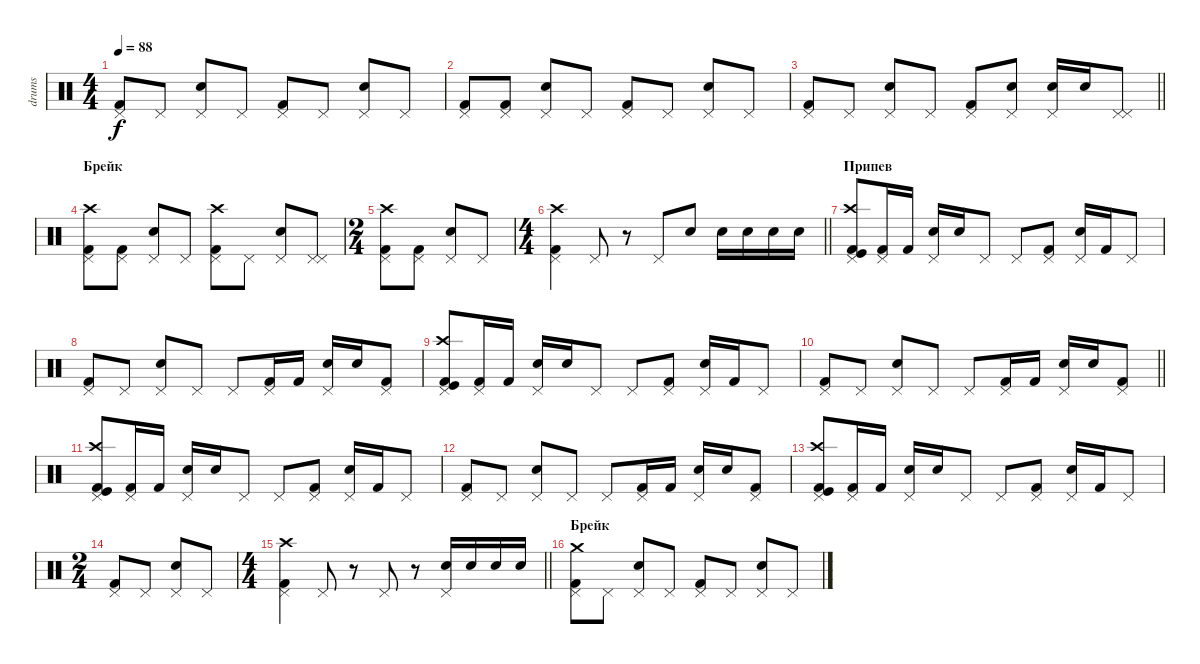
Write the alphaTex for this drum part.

\track ("drums" "drums") {instrument percussion}
\staff {score}
\articulation defaults
\ts (4 4)
\tempo 88
\clef neutral
\ks c
("Pedal Hi-Hat (hit)" "Kick (hit) 2").8{dy f} "Pedal Hi-Hat (hit)".8 ("Snare (hit) 2" "Pedal Hi-Hat (hit)").8 "Pedal Hi-Hat (hit)".8 ("Pedal Hi-Hat (hit)" "Kick (hit) 2").8 "Pedal Hi-Hat (hit)".8 ("Pedal Hi-Hat (hit)" "Snare (hit) 2").8 "Pedal Hi-Hat (hit)".8 |
("Pedal Hi-Hat (hit)" "Kick (hit) 2").8 ("Kick (hit) 2" "Pedal Hi-Hat (hit)").8 ("Pedal Hi-Hat (hit)" "Snare (hit) 2").8 "Pedal Hi-Hat (hit)".8 ("Kick (hit) 2" "Pedal Hi-Hat (hit)").8 "Pedal Hi-Hat (hit)".8 ("Pedal Hi-Hat (hit)" "Snare (hit) 2").8 "Pedal Hi-Hat (hit)".8 |
\barLineRight lightlight
("Pedal Hi-Hat (hit)" "Kick (hit) 2").8 "Pedal Hi-Hat (hit)".8 ("Pedal Hi-Hat (hit)" "Snare (hit) 2").8 "Pedal Hi-Hat (hit)".8 ("Pedal Hi-Hat (hit)" "Kick (hit) 2").8 ("Pedal Hi-Hat (hit)" "Snare (hit) 2").8 ("Pedal Hi-Hat (hit)" "Snare (hit) 2").16 "Snare (hit) 2".16 ("Pedal Hi-Hat (hit)" "Pedal Hi-Hat (hit)").8 |
\section ("" "Брейк")
("Crash high (hit)" "Pedal Hi-Hat (hit)" "Kick (hit) 2").8 ("Kick (hit) 2" "Pedal Hi-Hat (hit)").8 ("Pedal Hi-Hat (hit)" "Snare (hit) 2").8 "Pedal Hi-Hat (hit)".8 ("Crash high (hit)" "Kick (hit) 2" "Pedal Hi-Hat (hit)").8 "Pedal Hi-Hat (hit)".8 ("Pedal Hi-Hat (hit)" "Snare (hit) 2").8 ("Pedal Hi-Hat (hit)" "Pedal Hi-Hat (hit)").8 |
\ts (2 4)
("Crash high (hit)" "Pedal Hi-Hat (hit)" "Kick (hit) 2").8 ("Kick (hit) 2" "Pedal Hi-Hat (hit)").8 ("Pedal Hi-Hat (hit)" "Snare (hit) 2").8 "Pedal Hi-Hat (hit)".8 |
\ts (4 4)
\barLineRight lightlight
("Crash high (hit)" "Kick (hit) 2" "Pedal Hi-Hat (hit)").4 "Pedal Hi-Hat (hit)".8 r.8 "Pedal Hi-Hat (hit)".8 "Snare (hit) 2".8 "Snare (hit) 2".16 "Snare (hit) 2".16 "Snare (hit) 2".16 "Snare (hit) 2".16 |
\section ("" "Припев")
("Kick (hit)" "Crash high (hit)" "Kick (hit) 2" "Pedal Hi-Hat (hit)").8 ("Kick (hit) 2" "Pedal Hi-Hat (hit)").16 "Kick (hit) 2".16 ("Snare (hit) 2" "Pedal Hi-Hat (hit)").16 "Snare (hit) 2".16 "Pedal Hi-Hat (hit)".8 "Pedal Hi-Hat (hit)".8 ("Pedal Hi-Hat (hit)" "Kick (hit) 2").8 ("Pedal Hi-Hat (hit)" "Snare (hit) 2").16 "Kick (hit) 2".16 "Pedal Hi-Hat (hit)".8 |
("Pedal Hi-Hat (hit)" "Kick (hit) 2").8 "Pedal Hi-Hat (hit)".8 ("Snare (hit) 2" "Pedal Hi-Hat (hit)").8 "Pedal Hi-Hat (hit)".8 "Pedal Hi-Hat (hit)".8 ("Pedal Hi-Hat (hit)" "Kick (hit) 2").16 "Kick (hit) 2".16 ("Pedal Hi-Hat (hit)" "Snare (hit) 2").16 "Snare (hit) 2".16 ("Kick (hit) 2" "Pedal Hi-Hat (hit)").8 |
("Crash high (hit)" "Kick (hit) 2" "Pedal Hi-Hat (hit)" "Kick (hit)").8 ("Kick (hit) 2" "Pedal Hi-Hat (hit)").16 "Kick (hit) 2".16 ("Snare (hit) 2" "Pedal Hi-Hat (hit)").16 "Snare (hit) 2".16 "Pedal Hi-Hat (hit)".8 "Pedal Hi-Hat (hit)".8 ("Kick (hit) 2" "Pedal Hi-Hat (hit)").8 ("Pedal Hi-Hat (hit)" "Snare (hit) 2").16 "Kick (hit) 2".16 "Pedal Hi-Hat (hit)".8 |
\barLineRight lightlight
("Kick (hit) 2" "Pedal Hi-Hat (hit)").8 "Pedal Hi-Hat (hit)".8 ("Pedal Hi-Hat (hit)" "Snare (hit) 2").8 "Pedal Hi-Hat (hit)".8 "Pedal Hi-Hat (hit)".8 ("Pedal Hi-Hat (hit)" "Kick (hit) 2").16 "Kick (hit) 2".16 ("Pedal Hi-Hat (hit)" "Snare (hit) 2").16 "Snare (hit) 2".16 ("Pedal Hi-Hat (hit)" "Kick (hit) 2").8 |
("Crash high (hit)" "Kick (hit)" "Kick (hit) 2" "Pedal Hi-Hat (hit)").8 ("Kick (hit) 2" "Pedal Hi-Hat (hit)").16 "Kick (hit) 2".16 ("Snare (hit) 2" "Pedal Hi-Hat (hit)").16 "Snare (hit) 2".16 "Pedal Hi-Hat (hit)".8 "Pedal Hi-Hat (hit)".8 ("Pedal Hi-Hat (hit)" "Kick (hit) 2").8 ("Pedal Hi-Hat (hit)" "Snare (hit) 2").16 "Kick (hit) 2".16 "Pedal Hi-Hat (hit)".8 |
("Kick (hit) 2" "Pedal Hi-Hat (hit)").8 "Pedal Hi-Hat (hit)".8 ("Pedal Hi-Hat (hit)" "Snare (hit) 2").8 "Pedal Hi-Hat (hit)".8 "Pedal Hi-Hat (hit)".8 ("Pedal Hi-Hat (hit)" "Kick (hit) 2").16 "Kick (hit) 2".16 ("Pedal Hi-Hat (hit)" "Snare (hit) 2").16 "Snare (hit) 2".16 ("Kick (hit) 2" "Pedal Hi-Hat (hit)").8 |
("Crash high (hit)" "Kick (hit)" "Kick (hit) 2" "Pedal Hi-Hat (hit)").8 ("Kick (hit) 2" "Pedal Hi-Hat (hit)").16 "Kick (hit) 2".16 ("Snare (hit) 2" "Pedal Hi-Hat (hit)").16 "Snare (hit) 2".16 "Pedal Hi-Hat (hit)".8 "Pedal Hi-Hat (hit)".8 ("Kick (hit) 2" "Pedal Hi-Hat (hit)").8 ("Pedal Hi-Hat (hit)" "Snare (hit) 2").16 "Kick (hit) 2".16 "Pedal Hi-Hat (hit)".8 |
\ts (2 4)
("Pedal Hi-Hat (hit)" "Kick (hit) 2").8 "Pedal Hi-Hat (hit)".8 ("Snare (hit) 2" "Pedal Hi-Hat (hit)").8 "Pedal Hi-Hat (hit)".8 |
\ts (4 4)
\barLineRight lightlight
("Kick (hit) 2" "Crash high (hit)" "Pedal Hi-Hat (hit)").4 "Pedal Hi-Hat (hit)".8 r.8 "Pedal Hi-Hat (hit)".8 r.8 ("Pedal Hi-Hat (hit)" "Snare (hit) 2").16 "Snare (hit) 2".16 "Snare (hit) 2".16 "Snare (hit) 2".16 |
\section ("" "Брейк")
("Kick (hit) 2" "Crash medium (hit)" "Pedal Hi-Hat (hit)").8 "Pedal Hi-Hat (hit)".8 ("Snare (hit) 2" "Pedal Hi-Hat (hit)").8 "Pedal Hi-Hat (hit)".8 ("Kick (hit) 2" "Pedal Hi-Hat (hit)").8 "Pedal Hi-Hat (hit)".8 ("Pedal Hi-Hat (hit)" "Snare (hit) 2").8 "Pedal Hi-Hat (hit)".8
